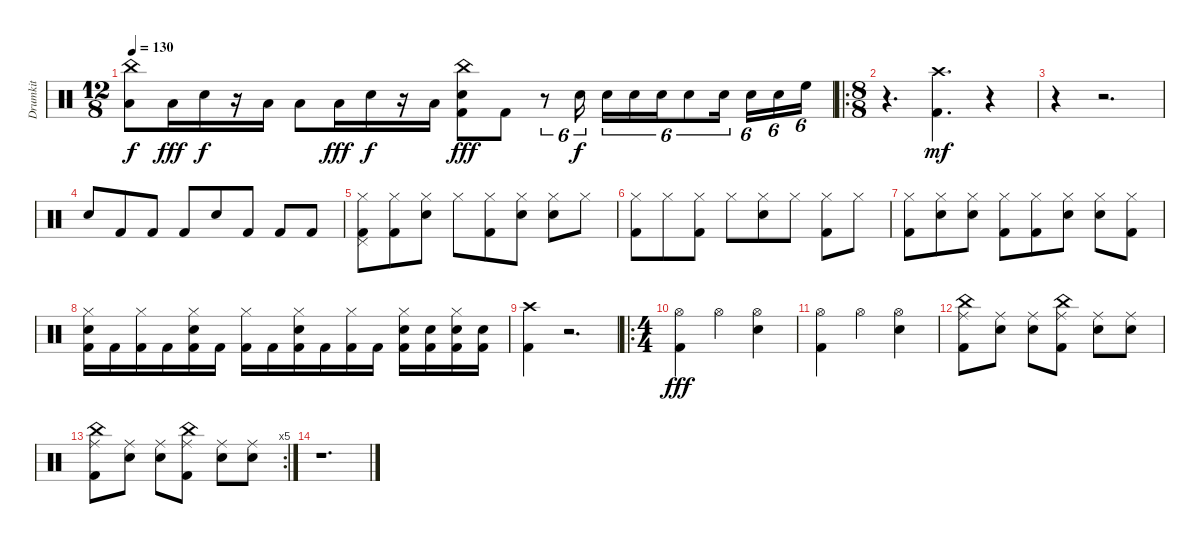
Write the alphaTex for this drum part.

\track ("Drumkit" "Drumkit") {instrument percussion}
\staff {score}
\articulation defaults
\ts (12 8)
\tempo 130
\clef neutral
\ks c
("Low Floor Tom (hit)" "China (hit)").8{dy f} "Low Floor Tom (hit)".16{dy fff} "Snare (hit) 2".16{dy f} r.16 "Low Floor Tom (hit)".16 "Low Floor Tom (hit)".8 "Low Floor Tom (hit)".16{dy fff} "Snare (hit) 2".16{dy f} r.16 "Low Floor Tom (hit)".16 ("Kick (hit) 2" "Snare (hit) 2" "China (hit)").8{dy fff} "Kick (hit) 2".8 r.8{tu (6 4)} "Snare (hit) 2".16{tu (6 4) dy f} "Snare (hit) 2".16{tu (6 4)} "Snare (hit) 2".16{tu (6 4)} "Snare (hit) 2".16{tu (6 4)} "Snare (hit) 2".8{tu (6 4)} "Snare (hit) 2".16{tu (6 4) beam splitsecondary} "Snare (hit) 2".16{tu (6 4)} "Snare (hit) 2".16{tu (6 4)} "High Floor Tom (hit)".16{tu (6 4)} |
\ro
\ts (8 8)
r.4{d} ("Crash high (hit)" "Kick (hit) 2").4{d dy mf} r.4 |
r.4 r.2{d} |
"Snare (hit) 2".8 "Kick (hit) 2".8 "Kick (hit) 2".8 "Kick (hit) 2".8 "Snare (hit) 2".8 "Kick (hit) 2".8 "Kick (hit) 2".8 "Kick (hit) 2".8 |
("Kick (hit) 2" "Hi-Hat (closed)" "Pedal Hi-Hat (hit)").8 ("Kick (hit) 2" "Hi-Hat (closed)").8 ("Snare (hit) 2" "Hi-Hat (closed)").8 "Hi-Hat (closed)".8 ("Kick (hit) 2" "Hi-Hat (closed)").8 ("Snare (hit) 2" "Hi-Hat (closed)").8 ("Snare (hit) 2" "Hi-Hat (closed)").8 "Hi-Hat (closed)".8 |
("Kick (hit) 2" "Hi-Hat (closed)").8 "Hi-Hat (closed)".8 ("Kick (hit) 2" "Hi-Hat (closed)").8 "Hi-Hat (closed)".8 ("Snare (hit) 2" "Hi-Hat (closed)").8 "Hi-Hat (closed)".8 ("Kick (hit) 2" "Hi-Hat (closed)").8 "Hi-Hat (closed)".8 |
("Kick (hit) 2" "Hi-Hat (closed)").8 ("Snare (hit) 2" "Hi-Hat (closed)").8 ("Snare (hit) 2" "Hi-Hat (closed)").8 ("Kick (hit) 2" "Hi-Hat (closed)").8 ("Kick (hit) 2" "Hi-Hat (closed)").8 ("Snare (hit) 2" "Hi-Hat (closed)").8 ("Snare (hit) 2" "Hi-Hat (closed)").8 ("Kick (hit) 2" "Hi-Hat (closed)").8 |
("Kick (hit) 2" "Hi-Hat (closed)" "Snare (hit) 2").16 "Kick (hit) 2".16 ("Kick (hit) 2" "Hi-Hat (closed)").16 "Kick (hit) 2".16 ("Kick (hit) 2" "Snare (hit) 2" "Hi-Hat (closed)").16 "Kick (hit) 2".16 ("Kick (hit) 2" "Hi-Hat (closed)").16 "Kick (hit) 2".16 ("Kick (hit) 2" "Hi-Hat (closed)" "Snare (hit) 2").16 "Kick (hit) 2".16 ("Kick (hit) 2" "Hi-Hat (closed)").16 "Kick (hit) 2".16 ("Kick (hit) 2" "Hi-Hat (closed)" "Snare (hit) 2").16 ("Kick (hit) 2" "Snare (hit) 2").16 ("Kick (hit) 2" "Hi-Hat (closed)" "Snare (hit) 2").16 ("Kick (hit) 2" "Snare (hit) 2").16 |
("Crash high (hit)" "Kick (hit) 2").4 r.2{d} |
\ro
\ts (4 4)
("Kick (hit) 2" "Hi-Hat (open)").4{dy fff} "Hi-Hat (open)".4 ("Snare (hit) 2" "Hi-Hat (open)").4 |
("Kick (hit) 2" "Hi-Hat (open)").4 "Hi-Hat (open)".4 ("Snare (hit) 2" "Hi-Hat (open)").4 |
("Kick (hit) 2" "China (hit)" "Ride (middle)").8 ("Snare (hit) 2" "Ride (middle)").8 ("Snare (hit) 2" "Ride (middle)").8 ("Kick (hit) 2" "China (hit)" "Ride (middle)").8 ("Snare (hit) 2" "Ride (middle)").8 ("Snare (hit) 2" "Ride (middle)").8 |
\rc 5
("Kick (hit) 2" "China (hit)" "Ride (middle)").8 ("Snare (hit) 2" "Ride (middle)").8 ("Snare (hit) 2" "Ride (middle)").8 ("Kick (hit) 2" "China (hit)" "Ride (middle)").8 ("Snare (hit) 2" "Ride (middle)").8 ("Snare (hit) 2" "Ride (middle)").8 |
r.1{d}
